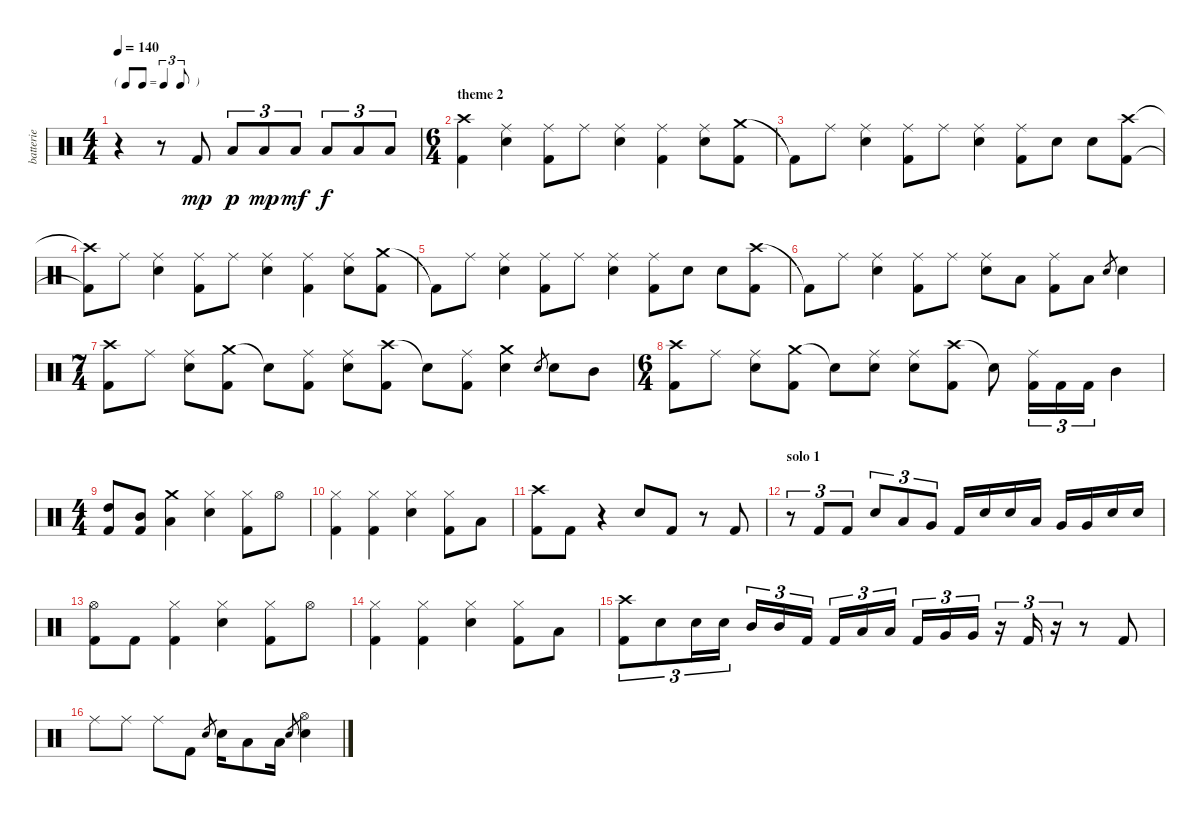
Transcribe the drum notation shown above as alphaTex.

\track ("batterie" "batterie") {instrument percussion}
\staff {score}
\articulation defaults
\ts (4 4)
\tf triplet8th
\tempo 140
\clef neutral
\ks c
r.4{dy f} r.8 "Kick (hit) 2".8{dy mp} "Low Tom (hit)".8{tu (3 2) dy p} "Low Tom (hit)".8{tu (3 2) dy mp} "Low Tom (hit)".8{tu (3 2) dy mf} "Low Tom (hit)".8{tu (3 2) dy f} "Low Tom (hit)".8{tu (3 2)} "Low Tom (hit)".8{tu (3 2)} |
\ts (6 4)
\section ("" "theme 2")
("Crash high (hit)" "Kick (hit) 2").4 ("Ride (middle)" "Electric Snare (hit)").4 ("Ride (middle)" "Kick (hit) 2").8 "Ride (middle)".8 ("Ride (middle)" "Electric Snare (hit)").4 ("Ride (middle)" "Kick (hit) 2").4 ("Ride (middle)" "Electric Snare (hit)").8 ("Crash medium (hit)" "Kick (hit) 2").8 |
"Kick (hit) 2"{t}.8 "Ride (middle)".8 ("Ride (middle)" "Electric Snare (hit)").4 ("Ride (middle)" "Kick (hit) 2").8 "Ride (middle)".8 ("Ride (middle)" "Electric Snare (hit)").4 ("Ride (middle)" "Kick (hit) 2").8 "Electric Snare (hit)".8 "Electric Snare (hit)".8 ("Crash high (hit)" "Kick (hit) 2").8 |
("Crash high (hit)"{t} "Kick (hit) 2"{t}).8 "Ride (middle)".8 ("Ride (middle)" "Electric Snare (hit)").4 ("Ride (middle)" "Kick (hit) 2").8 "Ride (middle)".8 ("Ride (middle)" "Electric Snare (hit)").4 ("Ride (middle)" "Kick (hit) 2").4 ("Ride (middle)" "Electric Snare (hit)").8 ("Crash medium (hit)" "Kick (hit) 2").8 |
"Kick (hit) 2"{t}.8 "Ride (middle)".8 ("Ride (middle)" "Electric Snare (hit)").4 ("Ride (middle)" "Kick (hit) 2").8 "Ride (middle)".8 ("Ride (middle)" "Electric Snare (hit)").4 ("Ride (middle)" "Kick (hit) 2").8 "Electric Snare (hit)".8 "Electric Snare (hit)".8 ("Crash high (hit)" "Kick (hit) 2").8 |
"Kick (hit) 2"{t}.8 "Ride (middle)".8 ("Ride (middle)" "Electric Snare (hit)").4 ("Ride (middle)" "Kick (hit) 2").8 "Ride (middle)".8 ("Ride (middle)" "Electric Snare (hit)").8 "Low Tom (hit)".8 ("Ride (middle)" "Kick (hit) 2").8 "Low Tom (hit)".8 "Electric Snare (hit)".8{gr} "Electric Snare (hit)".4 |
\ts (7 4)
("Crash high (hit)" "Kick (hit) 2").8 "Ride (middle)".8 ("Ride (middle)" "Electric Snare (hit)").8 ("Crash medium (hit)" "Kick (hit) 2").8 "Snare (hit)"{t}.8 ("Ride (middle)" "Kick (hit) 2").8 ("Ride (middle)" "Electric Snare (hit)").8 ("Crash high (hit)" "Kick (hit) 2").8 "Snare (hit)"{t}.8 ("Ride (middle)" "Kick (hit) 2").8 ("Crash medium (hit)" "Electric Snare (hit)").4 "Electric Snare (hit)".8{gr} "Electric Snare (hit)".8 "Mid Tom (hit)".8 |
\ts (6 4)
("Crash high (hit)" "Kick (hit) 2").8 "Ride (middle)".8 ("Ride (middle)" "Electric Snare (hit)").8 ("Crash medium (hit)" "Kick (hit) 2").8 "Snare (hit)"{t}.8 ("Ride (middle)" "Electric Snare (hit)").8 ("Ride (middle)" "Electric Snare (hit)").8 ("Crash high (hit)" "Kick (hit) 2").8 "Snare (hit)"{t}.8 ("Ride (middle)" "Kick (hit) 2").16{tu (3 2)} "Kick (hit) 2".16{tu (3 2)} "Kick (hit) 2".16{tu (3 2)} "Mid Tom (hit)".4 |
\ts (4 4)
("High Tom (hit)" "Kick (hit) 2").8 ("Mid Tom (hit)" "Kick (hit) 2").8 ("Crash medium (hit)" "Low Tom (hit)").4 ("Hi-Hat (closed)" "Electric Snare (hit)").4 ("Hi-Hat (closed)" "Kick (hit) 2").8 "Hi-Hat (open)".8 |
("Hi-Hat (closed)" "Kick (hit) 2").4 ("Hi-Hat (closed)" "Kick (hit) 2").4 ("Hi-Hat (closed)" "Electric Snare (hit)").4 ("Hi-Hat (closed)" "Kick (hit) 2").8 "Low Tom (hit)".8 |
("Crash high (hit)" "Kick (hit) 2").8 "Kick (hit) 2".8 r.4 "Electric Snare (hit)".8 "Kick (hit) 2".8 r.8 "Kick (hit) 2".8 |
\section ("" "solo 1")
r.8{tu (3 2)} "Kick (hit) 2".8{tu (3 2)} "Kick (hit) 2".8{tu (3 2)} "Electric Snare (hit)".8{tu (3 2)} "Low Tom (hit)".8{tu (3 2)} "Very Low Tom (hit)".8{tu (3 2)} "Kick (hit) 2".16 "Electric Snare (hit)".16 "Electric Snare (hit)".16 "Low Tom (hit)".16 "Very Low Tom (hit)".16 "Very Low Tom (hit)".16 "Electric Snare (hit)".16 "Electric Snare (hit)".16 |
("Hi-Hat (open)" "Kick (hit) 2").8 "Kick (hit) 2".8 ("Hi-Hat (closed)" "Kick (hit) 2").4 ("Hi-Hat (closed)" "Electric Snare (hit)").4 ("Hi-Hat (closed)" "Kick (hit) 2").8 "Hi-Hat (open)".8 |
("Hi-Hat (closed)" "Kick (hit) 2").4 ("Hi-Hat (closed)" "Kick (hit) 2").4 ("Hi-Hat (closed)" "Electric Snare (hit)").4 ("Hi-Hat (closed)" "Kick (hit) 2").8 "Low Tom (hit)".8 |
("Crash high (hit)" "Kick (hit) 2").8{tu (3 2)} "Electric Snare (hit)".8{tu (3 2)} "Electric Snare (hit)".16{tu (3 2)} "Electric Snare (hit)".16{tu (3 2)} "Mid Tom (hit)".16{tu (3 2)} "Mid Tom (hit)".16{tu (3 2)} "Kick (hit) 2".16{tu (3 2)} "Kick (hit) 2".16{tu (3 2)} "Low Tom (hit)".16{tu (3 2)} "Low Tom (hit)".16{tu (3 2)} "Kick (hit) 2".16{tu (3 2)} "Very Low Tom (hit)".16{tu (3 2)} "Very Low Tom (hit)".16{tu (3 2)} r.16{tu (3 2)} "Kick (hit) 2".16{tu (3 2)} r.16{tu (3 2)} r.8 "Kick (hit) 2".8 |
"Ride (middle)".8 "Ride (middle)".8 "Ride (middle)".8 "Kick (hit) 2".8 "Electric Snare (hit)".8{gr} "Electric Snare (hit)".16 "Low Tom (hit)".8 "Low Tom (hit)".16 "Electric Snare (hit)".8{gr} ("Hi-Hat (open)" "Electric Snare (hit)").4
